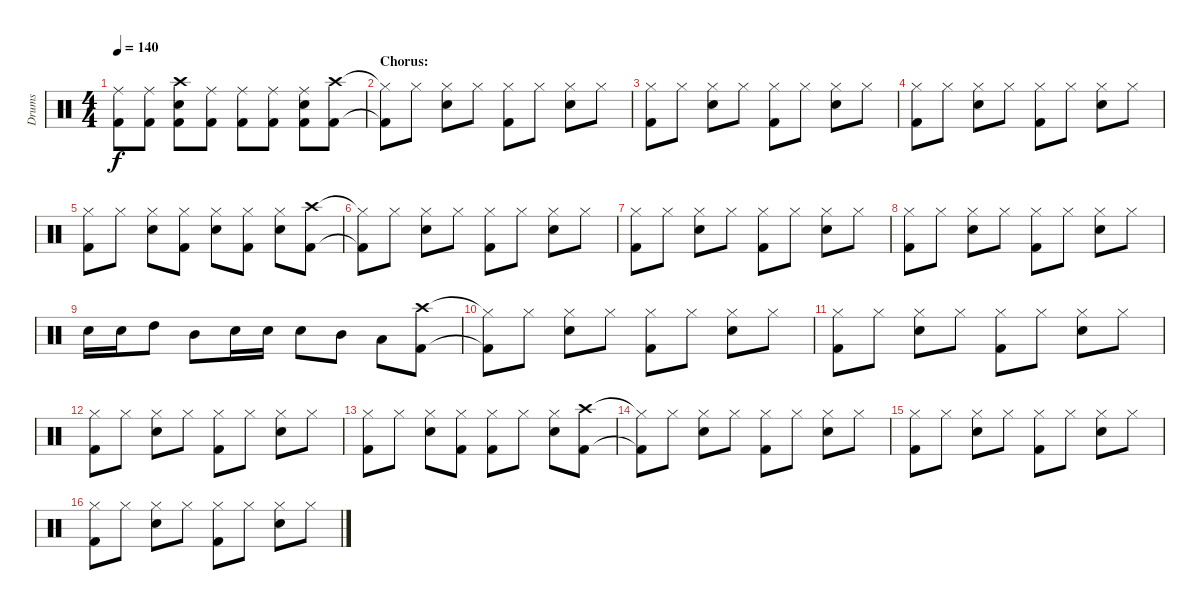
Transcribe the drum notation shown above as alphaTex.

\track ("Drums" "Drums") {instrument percussion}
\staff {score}
\articulation defaults
\ts (4 4)
\tempo 140
\clef neutral
\ks c
("Ride (middle)" "Kick (hit) 2").8{dy f} ("Ride (middle)" "Kick (hit) 2").8 ("Crash high (hit)" "Electric Snare (hit)" "Kick (hit) 2").8 ("Ride (middle)" "Kick (hit) 2").8 ("Ride (middle)" "Kick (hit) 2").8 ("Ride (middle)" "Kick (hit) 2").8 ("Ride (middle)" "Electric Snare (hit)" "Kick (hit) 2").8 ("Crash high (hit)" "Kick (hit) 2").8 |
\section ("" "Chorus:")
("Hi-Hat (closed)"{t} "Kick (hit) 2"{t}).8 "Hi-Hat (closed)".8 ("Hi-Hat (closed)" "Electric Snare (hit)").8 "Hi-Hat (closed)".8 ("Hi-Hat (closed)" "Kick (hit) 2").8 "Hi-Hat (closed)".8 ("Hi-Hat (closed)" "Electric Snare (hit)").8 "Hi-Hat (closed)".8 |
("Hi-Hat (closed)" "Kick (hit) 2").8 "Hi-Hat (closed)".8 ("Hi-Hat (closed)" "Electric Snare (hit)").8 "Hi-Hat (closed)".8 ("Hi-Hat (closed)" "Kick (hit) 2").8 "Hi-Hat (closed)".8 ("Hi-Hat (closed)" "Electric Snare (hit)").8 "Hi-Hat (closed)".8 |
("Hi-Hat (closed)" "Kick (hit) 2").8 "Hi-Hat (closed)".8 ("Hi-Hat (closed)" "Electric Snare (hit)").8 "Hi-Hat (closed)".8 ("Hi-Hat (closed)" "Kick (hit) 2").8 "Hi-Hat (closed)".8 ("Hi-Hat (closed)" "Electric Snare (hit)").8 "Hi-Hat (closed)".8 |
("Hi-Hat (closed)" "Kick (hit) 2").8 "Hi-Hat (closed)".8 ("Hi-Hat (closed)" "Electric Snare (hit)").8 ("Hi-Hat (closed)" "Kick (hit) 2").8 ("Hi-Hat (closed)" "Electric Snare (hit)").8 ("Hi-Hat (closed)" "Kick (hit) 2").8 ("Hi-Hat (closed)" "Electric Snare (hit)").8 ("Crash high (hit)" "Kick (hit) 2").8 |
("Hi-Hat (closed)"{t} "Kick (hit) 2"{t}).8 "Hi-Hat (closed)".8 ("Hi-Hat (closed)" "Electric Snare (hit)").8 "Hi-Hat (closed)".8 ("Hi-Hat (closed)" "Kick (hit) 2").8 "Hi-Hat (closed)".8 ("Hi-Hat (closed)" "Electric Snare (hit)").8 "Hi-Hat (closed)".8 |
("Hi-Hat (closed)" "Kick (hit) 2").8 "Hi-Hat (closed)".8 ("Hi-Hat (closed)" "Electric Snare (hit)").8 "Hi-Hat (closed)".8 ("Hi-Hat (closed)" "Kick (hit) 2").8 "Hi-Hat (closed)".8 ("Hi-Hat (closed)" "Electric Snare (hit)").8 "Hi-Hat (closed)".8 |
("Hi-Hat (closed)" "Kick (hit) 2").8 "Hi-Hat (closed)".8 ("Hi-Hat (closed)" "Electric Snare (hit)").8 "Hi-Hat (closed)".8 ("Hi-Hat (closed)" "Kick (hit) 2").8 "Hi-Hat (closed)".8 ("Hi-Hat (closed)" "Electric Snare (hit)").8 "Hi-Hat (closed)".8 |
"Electric Snare (hit)".16 "Electric Snare (hit)".16 "High Tom (hit)".8 "Mid Tom (hit)".8 "Electric Snare (hit)".16 "Electric Snare (hit)".16 "Electric Snare (hit)".8 "Mid Tom (hit)".8 "Low Tom (hit)".8 ("Crash high (hit)" "Kick (hit) 2").8 |
("Hi-Hat (closed)"{t} "Kick (hit) 2"{t}).8 "Hi-Hat (closed)".8 ("Hi-Hat (closed)" "Electric Snare (hit)").8 "Hi-Hat (closed)".8 ("Hi-Hat (closed)" "Kick (hit) 2").8 "Hi-Hat (closed)".8 ("Hi-Hat (closed)" "Electric Snare (hit)").8 "Hi-Hat (closed)".8 |
("Hi-Hat (closed)" "Kick (hit) 2").8 "Hi-Hat (closed)".8 ("Hi-Hat (closed)" "Electric Snare (hit)").8 "Hi-Hat (closed)".8 ("Hi-Hat (closed)" "Kick (hit) 2").8 "Hi-Hat (closed)".8 ("Hi-Hat (closed)" "Electric Snare (hit)").8 "Hi-Hat (closed)".8 |
("Hi-Hat (closed)" "Kick (hit) 2").8 "Hi-Hat (closed)".8 ("Hi-Hat (closed)" "Electric Snare (hit)").8 "Hi-Hat (closed)".8 ("Hi-Hat (closed)" "Kick (hit) 2").8 "Hi-Hat (closed)".8 ("Hi-Hat (closed)" "Electric Snare (hit)").8 "Hi-Hat (closed)".8 |
("Hi-Hat (closed)" "Kick (hit) 2").8 "Hi-Hat (closed)".8 ("Hi-Hat (closed)" "Electric Snare (hit)").8 ("Hi-Hat (closed)" "Kick (hit) 2").8 ("Hi-Hat (closed)" "Kick (hit) 2").8 "Hi-Hat (closed)".8 ("Hi-Hat (closed)" "Electric Snare (hit)").8 ("Crash high (hit)" "Kick (hit) 2").8 |
("Hi-Hat (closed)"{t} "Kick (hit) 2"{t}).8 "Hi-Hat (closed)".8 ("Hi-Hat (closed)" "Electric Snare (hit)").8 "Hi-Hat (closed)".8 ("Hi-Hat (closed)" "Kick (hit) 2").8 "Hi-Hat (closed)".8 ("Hi-Hat (closed)" "Electric Snare (hit)").8 "Hi-Hat (closed)".8 |
("Hi-Hat (closed)" "Kick (hit) 2").8 "Hi-Hat (closed)".8 ("Hi-Hat (closed)" "Electric Snare (hit)").8 "Hi-Hat (closed)".8 ("Hi-Hat (closed)" "Kick (hit) 2").8 "Hi-Hat (closed)".8 ("Hi-Hat (closed)" "Electric Snare (hit)").8 "Hi-Hat (closed)".8 |
("Hi-Hat (closed)" "Kick (hit) 2").8 "Hi-Hat (closed)".8 ("Hi-Hat (closed)" "Electric Snare (hit)").8 "Hi-Hat (closed)".8 ("Hi-Hat (closed)" "Kick (hit) 2").8 "Hi-Hat (closed)".8 ("Hi-Hat (closed)" "Electric Snare (hit)").8 "Hi-Hat (closed)".8
